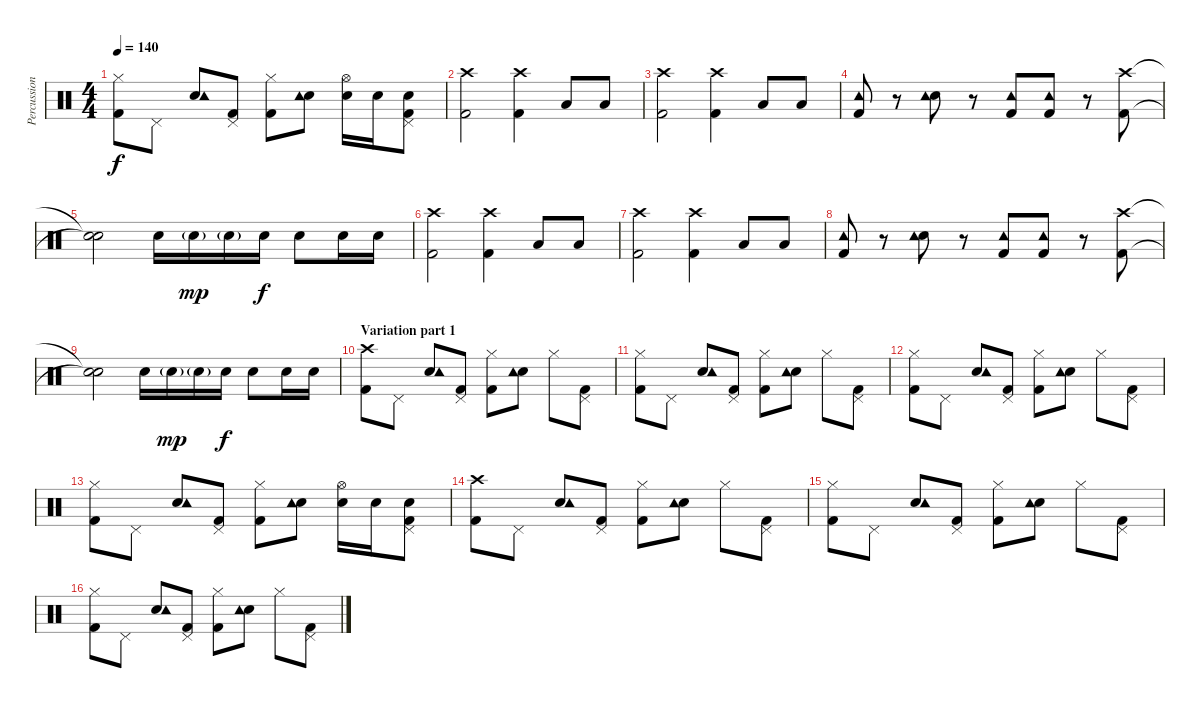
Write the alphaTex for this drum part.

\track ("Percussion" "Percussion") {instrument percussion}
\staff {score}
\articulation defaults
\ts (4 4)
\tempo 140
\clef neutral
\ks c
("Kick (hit) 2" "Hi-Hat (closed)").8{dy f} "Pedal Hi-Hat (hit)".8 ("Electric Snare (hit)" "Tambourine (hit)").8 ("Kick (hit) 2" "Pedal Hi-Hat (hit)").8 ("Kick (hit) 2" "Hi-Hat (closed)").8 ("Electric Snare (hit)" "Tambourine (hit)").8 ("Electric Snare (hit)" "Hi-Hat (open)").16 "Electric Snare (hit)".16 ("Kick (hit) 2" "Electric Snare (hit)" "Pedal Hi-Hat (hit)").8 |
("Kick (hit) 2" "Crash high (hit)").2 ("Kick (hit) 2" "Crash high (hit)").4 "Low Tom (hit)".8 "Low Tom (hit)".8 |
("Kick (hit) 2" "Crash high (hit)").2 ("Kick (hit) 2" "Crash high (hit)").4 "Low Floor Tom (hit)".8 "Low Tom (hit)".8 |
("Kick (hit) 2" "Tambourine (hit)").8 r.8 ("Electric Snare (hit)" "Tambourine (hit)").8 r.8 ("Kick (hit) 2" "Tambourine (hit)").8 ("Kick (hit) 2" "Tambourine (hit)").8 r.8 ("Kick (hit) 2" "Crash high (hit)").8 |
("Snare (hit)"{t} "Snare (hit)"{t}).2 "Electric Snare (hit)".16 "Electric Snare (hit)"{g}.16{dy mp} "Electric Snare (hit)"{g}.16 "Electric Snare (hit)".16{dy f} "Electric Snare (hit)".8 "Electric Snare (hit)".16 "Electric Snare (hit)".16 |
("Kick (hit) 2" "Crash high (hit)").2 ("Kick (hit) 2" "Crash high (hit)").4 "Low Tom (hit)".8 "Low Tom (hit)".8 |
("Kick (hit) 2" "Crash high (hit)").2 ("Kick (hit) 2" "Crash high (hit)").4 "Low Floor Tom (hit)".8 "Low Tom (hit)".8 |
("Kick (hit) 2" "Tambourine (hit)").8 r.8 ("Electric Snare (hit)" "Tambourine (hit)").8 r.8 ("Kick (hit) 2" "Tambourine (hit)").8 ("Kick (hit) 2" "Tambourine (hit)").8 r.8 ("Kick (hit) 2" "Crash high (hit)").8 |
("Snare (hit)"{t} "Snare (hit)"{t}).2 "Electric Snare (hit)".16 "Electric Snare (hit)"{g}.16{dy mp} "Electric Snare (hit)"{g}.16 "Electric Snare (hit)".16{dy f} "Electric Snare (hit)".8 "Electric Snare (hit)".16 "Electric Snare (hit)".16 |
\section ("" "Variation part 1")
("Kick (hit) 2" "Crash high (hit)").8 "Pedal Hi-Hat (hit)".8 ("Electric Snare (hit)" "Tambourine (hit)").8 ("Kick (hit) 2" "Pedal Hi-Hat (hit)").8 ("Kick (hit) 2" "Hi-Hat (closed)").8 ("Electric Snare (hit)" "Tambourine (hit)").8 "Hi-Hat (closed)".8 ("Kick (hit) 2" "Pedal Hi-Hat (hit)").8 |
("Kick (hit) 2" "Hi-Hat (closed)").8 "Pedal Hi-Hat (hit)".8 ("Electric Snare (hit)" "Tambourine (hit)").8 ("Kick (hit) 2" "Pedal Hi-Hat (hit)").8 ("Kick (hit) 2" "Hi-Hat (closed)").8 ("Electric Snare (hit)" "Tambourine (hit)").8 "Hi-Hat (closed)".8 ("Kick (hit) 2" "Pedal Hi-Hat (hit)").8 |
("Kick (hit) 2" "Hi-Hat (closed)").8 "Pedal Hi-Hat (hit)".8 ("Electric Snare (hit)" "Tambourine (hit)").8 ("Kick (hit) 2" "Pedal Hi-Hat (hit)").8 ("Kick (hit) 2" "Hi-Hat (closed)").8 ("Electric Snare (hit)" "Tambourine (hit)").8 "Hi-Hat (closed)".8 ("Kick (hit) 2" "Pedal Hi-Hat (hit)").8 |
("Kick (hit) 2" "Hi-Hat (closed)").8 "Pedal Hi-Hat (hit)".8 ("Electric Snare (hit)" "Tambourine (hit)").8 ("Kick (hit) 2" "Pedal Hi-Hat (hit)").8 ("Kick (hit) 2" "Hi-Hat (closed)").8 ("Electric Snare (hit)" "Tambourine (hit)").8 ("Electric Snare (hit)" "Hi-Hat (open)").16 "Electric Snare (hit)".16 ("Kick (hit) 2" "Electric Snare (hit)" "Pedal Hi-Hat (hit)").8 |
("Kick (hit) 2" "Crash high (hit)").8 "Pedal Hi-Hat (hit)".8 ("Electric Snare (hit)" "Tambourine (hit)").8 ("Kick (hit) 2" "Pedal Hi-Hat (hit)").8 ("Kick (hit) 2" "Hi-Hat (closed)").8 ("Electric Snare (hit)" "Tambourine (hit)").8 "Hi-Hat (closed)".8 ("Kick (hit) 2" "Pedal Hi-Hat (hit)").8 |
("Kick (hit) 2" "Hi-Hat (closed)").8 "Pedal Hi-Hat (hit)".8 ("Electric Snare (hit)" "Tambourine (hit)").8 ("Kick (hit) 2" "Pedal Hi-Hat (hit)").8 ("Kick (hit) 2" "Hi-Hat (closed)").8 ("Electric Snare (hit)" "Tambourine (hit)").8 "Hi-Hat (closed)".8 ("Kick (hit) 2" "Pedal Hi-Hat (hit)").8 |
("Kick (hit) 2" "Hi-Hat (closed)").8 "Pedal Hi-Hat (hit)".8 ("Electric Snare (hit)" "Tambourine (hit)").8 ("Kick (hit) 2" "Pedal Hi-Hat (hit)").8 ("Kick (hit) 2" "Hi-Hat (closed)").8 ("Electric Snare (hit)" "Tambourine (hit)").8 "Hi-Hat (closed)".8 ("Kick (hit) 2" "Pedal Hi-Hat (hit)").8
